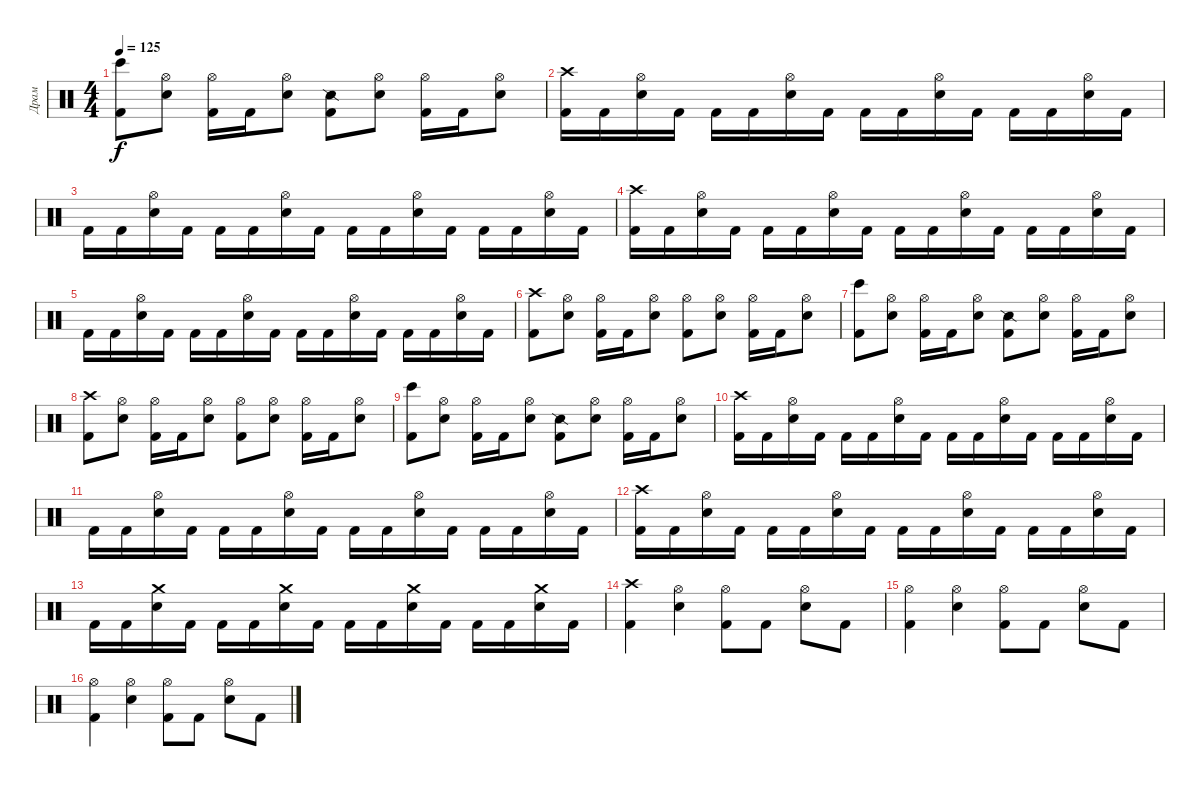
\track ("Драм" "Драм") {instrument percussion}
\staff {score}
\articulation defaults
\ts (4 4)
\tempo 125
\clef neutral
\ks c
("Kick (hit) 2" "Bongo High (hit)").8{dy f} ("Hi-Hat (open)" "Snare (hit) 2").8 ("Hi-Hat (open)" "Kick (hit) 2").16 "Kick (hit) 2".16 ("Hi-Hat (open)" "Snare (hit) 2").8 ("Kick (hit) 2" "Snare (side stick) 2").8 ("Hi-Hat (open)" "Snare (hit) 2").8 ("Hi-Hat (open)" "Kick (hit) 2").16 "Kick (hit) 2".16 ("Hi-Hat (open)" "Snare (hit) 2").8 |
("Kick (hit) 2" "Crash high (hit)").16 "Kick (hit) 2".16 ("Hi-Hat (open)" "Snare (hit) 2").16 "Kick (hit) 2".16 "Kick (hit) 2".16 "Kick (hit) 2".16 ("Hi-Hat (open)" "Snare (hit) 2").16 "Kick (hit) 2".16 "Kick (hit) 2".16 "Kick (hit) 2".16 ("Hi-Hat (open)" "Snare (hit) 2").16 "Kick (hit) 2".16 "Kick (hit) 2".16 "Kick (hit) 2".16 ("Hi-Hat (open)" "Snare (hit) 2").16 "Kick (hit) 2".16 |
"Kick (hit) 2".16 "Kick (hit) 2".16 ("Hi-Hat (open)" "Snare (hit) 2").16 "Kick (hit) 2".16 "Kick (hit) 2".16 "Kick (hit) 2".16 ("Hi-Hat (open)" "Snare (hit) 2").16 "Kick (hit) 2".16 "Kick (hit) 2".16 "Kick (hit) 2".16 ("Hi-Hat (open)" "Snare (hit) 2").16 "Kick (hit) 2".16 "Kick (hit) 2".16 "Kick (hit) 2".16 ("Hi-Hat (open)" "Snare (hit) 2").16 "Kick (hit) 2".16 |
("Kick (hit) 2" "Crash high (hit)").16 "Kick (hit) 2".16 ("Hi-Hat (open)" "Snare (hit) 2").16 "Kick (hit) 2".16 "Kick (hit) 2".16 "Kick (hit) 2".16 ("Hi-Hat (open)" "Snare (hit) 2").16 "Kick (hit) 2".16 "Kick (hit) 2".16 "Kick (hit) 2".16 ("Hi-Hat (open)" "Snare (hit) 2").16 "Kick (hit) 2".16 "Kick (hit) 2".16 "Kick (hit) 2".16 ("Hi-Hat (open)" "Snare (hit) 2").16 "Kick (hit) 2".16 |
"Kick (hit) 2".16 "Kick (hit) 2".16 ("Hi-Hat (open)" "Snare (hit) 2").16 "Kick (hit) 2".16 "Kick (hit) 2".16 "Kick (hit) 2".16 ("Hi-Hat (open)" "Snare (hit) 2").16 "Kick (hit) 2".16 "Kick (hit) 2".16 "Kick (hit) 2".16 ("Hi-Hat (open)" "Snare (hit) 2").16 "Kick (hit) 2".16 "Kick (hit) 2".16 "Kick (hit) 2".16 ("Hi-Hat (open)" "Snare (hit) 2").16 "Kick (hit) 2".16 |
("Kick (hit) 2" "Crash high (hit)").8 ("Hi-Hat (open)" "Snare (hit) 2").8 ("Hi-Hat (open)" "Kick (hit) 2").16 "Kick (hit) 2".16 ("Hi-Hat (open)" "Snare (hit) 2").8 ("Hi-Hat (open)" "Kick (hit) 2").8 ("Hi-Hat (open)" "Snare (hit) 2").8 ("Hi-Hat (open)" "Kick (hit) 2").16 "Kick (hit) 2".16 ("Hi-Hat (open)" "Snare (hit) 2").8 |
("Kick (hit) 2" "Bongo High (hit)").8 ("Hi-Hat (open)" "Snare (hit) 2").8 ("Hi-Hat (open)" "Kick (hit) 2").16 "Kick (hit) 2".16 ("Hi-Hat (open)" "Snare (hit) 2").8 ("Kick (hit) 2" "Snare (side stick) 2").8 ("Hi-Hat (open)" "Snare (hit) 2").8 ("Hi-Hat (open)" "Kick (hit) 2").16 "Kick (hit) 2".16 ("Hi-Hat (open)" "Snare (hit) 2").8 |
("Kick (hit) 2" "Crash high (hit)").8 ("Hi-Hat (open)" "Snare (hit) 2").8 ("Hi-Hat (open)" "Kick (hit) 2").16 "Kick (hit) 2".16 ("Hi-Hat (open)" "Snare (hit) 2").8 ("Hi-Hat (open)" "Kick (hit) 2").8 ("Hi-Hat (open)" "Snare (hit) 2").8 ("Hi-Hat (open)" "Kick (hit) 2").16 "Kick (hit) 2".16 ("Hi-Hat (open)" "Snare (hit) 2").8 |
("Kick (hit) 2" "Bongo High (hit)").8 ("Hi-Hat (open)" "Snare (hit) 2").8 ("Hi-Hat (open)" "Kick (hit) 2").16 "Kick (hit) 2".16 ("Hi-Hat (open)" "Snare (hit) 2").8 ("Kick (hit) 2" "Snare (side stick) 2").8 ("Hi-Hat (open)" "Snare (hit) 2").8 ("Hi-Hat (open)" "Kick (hit) 2").16 "Kick (hit) 2".16 ("Hi-Hat (open)" "Snare (hit) 2").8 |
("Kick (hit) 2" "Crash high (hit)").16 "Kick (hit) 2".16 ("Hi-Hat (open)" "Snare (hit) 2").16 "Kick (hit) 2".16 "Kick (hit) 2".16 "Kick (hit) 2".16 ("Hi-Hat (open)" "Snare (hit) 2").16 "Kick (hit) 2".16 "Kick (hit) 2".16 "Kick (hit) 2".16 ("Hi-Hat (open)" "Snare (hit) 2").16 "Kick (hit) 2".16 "Kick (hit) 2".16 "Kick (hit) 2".16 ("Hi-Hat (open)" "Snare (hit) 2").16 "Kick (hit) 2".16 |
"Kick (hit) 2".16 "Kick (hit) 2".16 ("Hi-Hat (open)" "Snare (hit) 2").16 "Kick (hit) 2".16 "Kick (hit) 2".16 "Kick (hit) 2".16 ("Hi-Hat (open)" "Snare (hit) 2").16 "Kick (hit) 2".16 "Kick (hit) 2".16 "Kick (hit) 2".16 ("Hi-Hat (open)" "Snare (hit) 2").16 "Kick (hit) 2".16 "Kick (hit) 2".16 "Kick (hit) 2".16 ("Hi-Hat (open)" "Snare (hit) 2").16 "Kick (hit) 2".16 |
("Kick (hit) 2" "Crash high (hit)").16 "Kick (hit) 2".16 ("Hi-Hat (open)" "Snare (hit) 2").16 "Kick (hit) 2".16 "Kick (hit) 2".16 "Kick (hit) 2".16 ("Hi-Hat (open)" "Snare (hit) 2").16 "Kick (hit) 2".16 "Kick (hit) 2".16 "Kick (hit) 2".16 ("Hi-Hat (open)" "Snare (hit) 2").16 "Kick (hit) 2".16 "Kick (hit) 2".16 "Kick (hit) 2".16 ("Hi-Hat (open)" "Snare (hit) 2").16 "Kick (hit) 2".16 |
"Kick (hit) 2".16 "Kick (hit) 2".16 ("Snare (hit) 2" "Crash medium (hit)").16 "Kick (hit) 2".16 "Kick (hit) 2".16 "Kick (hit) 2".16 ("Snare (hit) 2" "Crash medium (hit)").16 "Kick (hit) 2".16 "Kick (hit) 2".16 "Kick (hit) 2".16 ("Snare (hit) 2" "Crash medium (hit)").16 "Kick (hit) 2".16 "Kick (hit) 2".16 "Kick (hit) 2".16 ("Snare (hit) 2" "Crash medium (hit)").16 "Kick (hit) 2".16 |
("Kick (hit) 2" "Crash high (hit)").4 ("Hi-Hat (open)" "Snare (hit) 2").4 ("Hi-Hat (open)" "Kick (hit) 2").8 "Kick (hit) 2".8 ("Hi-Hat (open)" "Snare (hit) 2").8 "Kick (hit) 2".8 |
("Hi-Hat (open)" "Kick (hit) 2").4 ("Hi-Hat (open)" "Snare (hit) 2").4 ("Hi-Hat (open)" "Kick (hit) 2").8 "Kick (hit) 2".8 ("Hi-Hat (open)" "Snare (hit) 2").8 "Kick (hit) 2".8 |
("Hi-Hat (open)" "Kick (hit) 2").4 ("Hi-Hat (open)" "Snare (hit) 2").4 ("Hi-Hat (open)" "Kick (hit) 2").8 "Kick (hit) 2".8 ("Hi-Hat (open)" "Snare (hit) 2").8 "Kick (hit) 2".8
